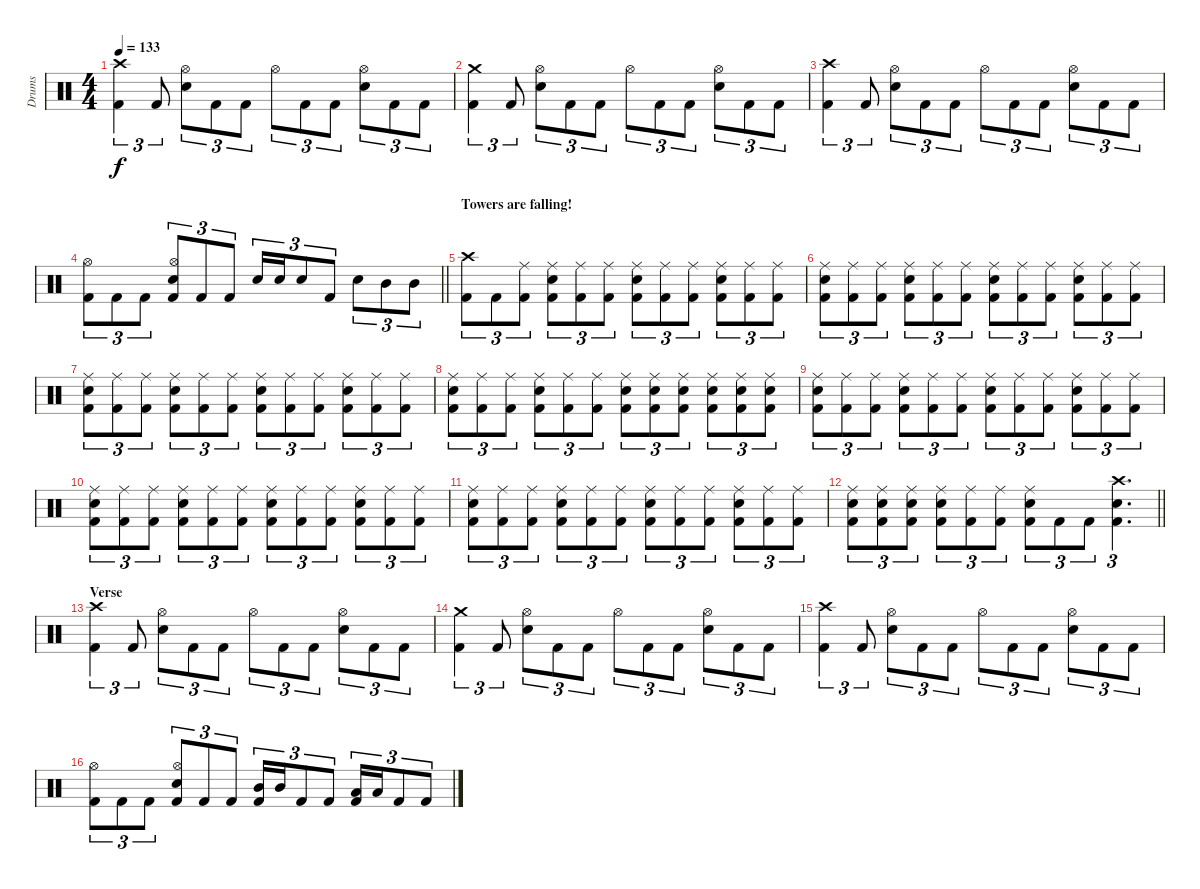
\track ("Drums" "Drums") {instrument percussion}
\staff {score}
\articulation defaults
\ts (4 4)
\tempo 133
\clef neutral
\ks c
("Crash high (hit)" "Kick (hit) 2").4{tu (3 2) dy f} "Kick (hit) 2".8{tu (3 2)} ("Hi-Hat (open)" "Snare (hit) 2").8{tu (3 2)} "Kick (hit) 2".8{tu (3 2)} "Kick (hit) 2".8{tu (3 2)} "Hi-Hat (open)".8{tu (3 2)} "Kick (hit) 2".8{tu (3 2)} "Kick (hit) 2".8{tu (3 2)} ("Hi-Hat (open)" "Snare (hit) 2").8{tu (3 2)} "Kick (hit) 2".8{tu (3 2)} "Kick (hit) 2".8{tu (3 2)} |
("Crash medium (hit)" "Kick (hit) 2").4{tu (3 2)} "Kick (hit) 2".8{tu (3 2)} ("Hi-Hat (open)" "Snare (hit) 2").8{tu (3 2)} "Kick (hit) 2".8{tu (3 2)} "Kick (hit) 2".8{tu (3 2)} "Hi-Hat (open)".8{tu (3 2)} "Kick (hit) 2".8{tu (3 2)} "Kick (hit) 2".8{tu (3 2)} ("Hi-Hat (open)" "Snare (hit) 2").8{tu (3 2)} "Kick (hit) 2".8{tu (3 2)} "Kick (hit) 2".8{tu (3 2)} |
("Crash high (hit)" "Kick (hit) 2").4{tu (3 2)} "Kick (hit) 2".8{tu (3 2)} ("Hi-Hat (open)" "Snare (hit) 2").8{tu (3 2)} "Kick (hit) 2".8{tu (3 2)} "Kick (hit) 2".8{tu (3 2)} "Hi-Hat (open)".8{tu (3 2)} "Kick (hit) 2".8{tu (3 2)} "Kick (hit) 2".8{tu (3 2)} ("Hi-Hat (open)" "Snare (hit) 2").8{tu (3 2)} "Kick (hit) 2".8{tu (3 2)} "Kick (hit) 2".8{tu (3 2)} |
\barLineRight lightlight
("Hi-Hat (open)" "Kick (hit) 2").8{tu (3 2)} "Kick (hit) 2".8{tu (3 2)} "Kick (hit) 2".8{tu (3 2)} ("Hi-Hat (open)" "Snare (hit) 2" "Kick (hit) 2").8{tu (3 2)} "Kick (hit) 2".8{tu (3 2)} "Kick (hit) 2".8{tu (3 2)} "Snare (hit) 2".16{tu (3 2)} "Snare (hit) 2".16{tu (3 2)} "Snare (hit) 2".8{tu (3 2)} "Kick (hit) 2".8{tu (3 2)} "Snare (hit) 2".8{tu (3 2)} "Mid Tom (hit)".8{tu (3 2)} "Mid Tom (hit)".8{tu (3 2)} |
\section ("" "Towers are falling!")
("Crash high (hit)" "Kick (hit) 2").8{tu (3 2)} "Kick (hit) 2".8{tu (3 2)} ("Ride (middle)" "Kick (hit) 2").8{tu (3 2)} ("Ride (middle)" "Snare (hit) 2" "Kick (hit) 2").8{tu (3 2)} ("Ride (middle)" "Kick (hit) 2").8{tu (3 2)} ("Ride (middle)" "Kick (hit) 2").8{tu (3 2)} ("Ride (middle)" "Snare (hit) 2" "Kick (hit) 2").8{tu (3 2)} ("Ride (middle)" "Kick (hit) 2").8{tu (3 2)} ("Ride (middle)" "Kick (hit) 2").8{tu (3 2)} ("Ride (middle)" "Snare (hit) 2" "Kick (hit) 2").8{tu (3 2)} ("Ride (middle)" "Kick (hit) 2").8{tu (3 2)} ("Ride (middle)" "Kick (hit) 2").8{tu (3 2)} |
("Ride (middle)" "Snare (hit) 2" "Kick (hit) 2").8{tu (3 2)} ("Ride (middle)" "Kick (hit) 2").8{tu (3 2)} ("Ride (middle)" "Kick (hit) 2").8{tu (3 2)} ("Ride (middle)" "Snare (hit) 2" "Kick (hit) 2").8{tu (3 2)} ("Ride (middle)" "Kick (hit) 2").8{tu (3 2)} ("Ride (middle)" "Kick (hit) 2").8{tu (3 2)} ("Ride (middle)" "Snare (hit) 2" "Kick (hit) 2").8{tu (3 2)} ("Ride (middle)" "Kick (hit) 2").8{tu (3 2)} ("Ride (middle)" "Kick (hit) 2").8{tu (3 2)} ("Ride (middle)" "Snare (hit) 2" "Kick (hit) 2").8{tu (3 2)} ("Ride (middle)" "Kick (hit) 2").8{tu (3 2)} ("Ride (middle)" "Kick (hit) 2").8{tu (3 2)} |
("Ride (middle)" "Snare (hit) 2" "Kick (hit) 2").8{tu (3 2)} ("Ride (middle)" "Kick (hit) 2").8{tu (3 2)} ("Ride (middle)" "Kick (hit) 2").8{tu (3 2)} ("Ride (middle)" "Snare (hit) 2" "Kick (hit) 2").8{tu (3 2)} ("Ride (middle)" "Kick (hit) 2").8{tu (3 2)} ("Ride (middle)" "Kick (hit) 2").8{tu (3 2)} ("Ride (middle)" "Snare (hit) 2" "Kick (hit) 2").8{tu (3 2)} ("Ride (middle)" "Kick (hit) 2").8{tu (3 2)} ("Ride (middle)" "Kick (hit) 2").8{tu (3 2)} ("Ride (middle)" "Snare (hit) 2" "Kick (hit) 2").8{tu (3 2)} ("Ride (middle)" "Kick (hit) 2").8{tu (3 2)} ("Ride (middle)" "Kick (hit) 2").8{tu (3 2)} |
("Ride (middle)" "Snare (hit) 2" "Kick (hit) 2").8{tu (3 2)} ("Ride (middle)" "Kick (hit) 2").8{tu (3 2)} ("Ride (middle)" "Kick (hit) 2").8{tu (3 2)} ("Ride (middle)" "Snare (hit) 2" "Kick (hit) 2").8{tu (3 2)} ("Ride (middle)" "Kick (hit) 2").8{tu (3 2)} ("Ride (middle)" "Kick (hit) 2").8{tu (3 2)} ("Ride (middle)" "Snare (hit) 2" "Kick (hit) 2").8{tu (3 2)} ("Ride (middle)" "Snare (hit) 2" "Kick (hit) 2").8{tu (3 2)} ("Ride (middle)" "Snare (hit) 2" "Kick (hit) 2").8{tu (3 2)} ("Ride (middle)" "Snare (hit) 2" "Kick (hit) 2").8{tu (3 2)} ("Ride (middle)" "Snare (hit) 2" "Kick (hit) 2").8{tu (3 2)} ("Ride (middle)" "Snare (hit) 2" "Kick (hit) 2").8{tu (3 2)} |
("Ride (middle)" "Snare (hit) 2" "Kick (hit) 2").8{tu (3 2)} ("Ride (middle)" "Kick (hit) 2").8{tu (3 2)} ("Ride (middle)" "Kick (hit) 2").8{tu (3 2)} ("Ride (middle)" "Snare (hit) 2" "Kick (hit) 2").8{tu (3 2)} ("Ride (middle)" "Kick (hit) 2").8{tu (3 2)} ("Ride (middle)" "Kick (hit) 2").8{tu (3 2)} ("Ride (middle)" "Snare (hit) 2" "Kick (hit) 2").8{tu (3 2)} ("Ride (middle)" "Kick (hit) 2").8{tu (3 2)} ("Ride (middle)" "Kick (hit) 2").8{tu (3 2)} ("Ride (middle)" "Snare (hit) 2" "Kick (hit) 2").8{tu (3 2)} ("Ride (middle)" "Kick (hit) 2").8{tu (3 2)} ("Ride (middle)" "Kick (hit) 2").8{tu (3 2)} |
("Ride (middle)" "Snare (hit) 2" "Kick (hit) 2").8{tu (3 2)} ("Ride (middle)" "Kick (hit) 2").8{tu (3 2)} ("Ride (middle)" "Kick (hit) 2").8{tu (3 2)} ("Ride (middle)" "Snare (hit) 2" "Kick (hit) 2").8{tu (3 2)} ("Ride (middle)" "Kick (hit) 2").8{tu (3 2)} ("Ride (middle)" "Kick (hit) 2").8{tu (3 2)} ("Ride (middle)" "Snare (hit) 2" "Kick (hit) 2").8{tu (3 2)} ("Ride (middle)" "Kick (hit) 2").8{tu (3 2)} ("Ride (middle)" "Kick (hit) 2").8{tu (3 2)} ("Ride (middle)" "Snare (hit) 2" "Kick (hit) 2").8{tu (3 2)} ("Ride (middle)" "Kick (hit) 2").8{tu (3 2)} ("Ride (middle)" "Kick (hit) 2").8{tu (3 2)} |
("Ride (middle)" "Snare (hit) 2" "Kick (hit) 2").8{tu (3 2)} ("Ride (middle)" "Kick (hit) 2").8{tu (3 2)} ("Ride (middle)" "Kick (hit) 2").8{tu (3 2)} ("Ride (middle)" "Snare (hit) 2" "Kick (hit) 2").8{tu (3 2)} ("Ride (middle)" "Kick (hit) 2").8{tu (3 2)} ("Ride (middle)" "Kick (hit) 2").8{tu (3 2)} ("Ride (middle)" "Snare (hit) 2" "Kick (hit) 2").8{tu (3 2)} ("Ride (middle)" "Kick (hit) 2").8{tu (3 2)} ("Ride (middle)" "Kick (hit) 2").8{tu (3 2)} ("Ride (middle)" "Snare (hit) 2" "Kick (hit) 2").8{tu (3 2)} ("Ride (middle)" "Kick (hit) 2").8{tu (3 2)} ("Ride (middle)" "Kick (hit) 2").8{tu (3 2)} |
\barLineRight lightlight
("Ride (middle)" "Snare (hit) 2" "Kick (hit) 2").8{tu (3 2)} ("Ride (middle)" "Snare (hit) 2" "Kick (hit) 2").8{tu (3 2)} ("Ride (middle)" "Snare (hit) 2" "Kick (hit) 2").8{tu (3 2)} ("Ride (middle)" "Snare (hit) 2" "Kick (hit) 2").8{tu (3 2)} ("Ride (middle)" "Kick (hit) 2").8{tu (3 2)} ("Ride (middle)" "Kick (hit) 2").8{tu (3 2)} ("Ride (middle)" "Snare (hit) 2" "Kick (hit) 2").8{tu (3 2)} "Kick (hit) 2".8{tu (3 2)} "Kick (hit) 2".8{tu (3 2)} ("Crash high (hit)" "Snare (hit) 2" "Kick (hit) 2").4{d tu (3 2)} |
\section ("" "Verse")
("Crash high (hit)" "Kick (hit) 2").4{tu (3 2)} "Kick (hit) 2".8{tu (3 2)} ("Hi-Hat (open)" "Snare (hit) 2").8{tu (3 2)} "Kick (hit) 2".8{tu (3 2)} "Kick (hit) 2".8{tu (3 2)} "Hi-Hat (open)".8{tu (3 2)} "Kick (hit) 2".8{tu (3 2)} "Kick (hit) 2".8{tu (3 2)} ("Hi-Hat (open)" "Snare (hit) 2").8{tu (3 2)} "Kick (hit) 2".8{tu (3 2)} "Kick (hit) 2".8{tu (3 2)} |
("Crash medium (hit)" "Kick (hit) 2").4{tu (3 2)} "Kick (hit) 2".8{tu (3 2)} ("Hi-Hat (open)" "Snare (hit) 2").8{tu (3 2)} "Kick (hit) 2".8{tu (3 2)} "Kick (hit) 2".8{tu (3 2)} "Hi-Hat (open)".8{tu (3 2)} "Kick (hit) 2".8{tu (3 2)} "Kick (hit) 2".8{tu (3 2)} ("Hi-Hat (open)" "Snare (hit) 2").8{tu (3 2)} "Kick (hit) 2".8{tu (3 2)} "Kick (hit) 2".8{tu (3 2)} |
("Crash high (hit)" "Kick (hit) 2").4{tu (3 2)} "Kick (hit) 2".8{tu (3 2)} ("Hi-Hat (open)" "Snare (hit) 2").8{tu (3 2)} "Kick (hit) 2".8{tu (3 2)} "Kick (hit) 2".8{tu (3 2)} "Hi-Hat (open)".8{tu (3 2)} "Kick (hit) 2".8{tu (3 2)} "Kick (hit) 2".8{tu (3 2)} ("Hi-Hat (open)" "Snare (hit) 2").8{tu (3 2)} "Kick (hit) 2".8{tu (3 2)} "Kick (hit) 2".8{tu (3 2)} |
("Hi-Hat (open)" "Kick (hit) 2").8{tu (3 2)} "Kick (hit) 2".8{tu (3 2)} "Kick (hit) 2".8{tu (3 2)} ("Hi-Hat (open)" "Snare (hit) 2" "Kick (hit) 2").8{tu (3 2)} "Kick (hit) 2".8{tu (3 2)} "Kick (hit) 2".8{tu (3 2)} ("Mid Tom (hit)" "Kick (hit) 2").16{tu (3 2)} "Mid Tom (hit)".16{tu (3 2)} "Kick (hit) 2".8{tu (3 2)} "Kick (hit) 2".8{tu (3 2)} ("Low Tom (hit)" "Kick (hit) 2").16{tu (3 2)} "Low Tom (hit)".16{tu (3 2)} "Kick (hit) 2".8{tu (3 2)} "Kick (hit) 2".8{tu (3 2)}
